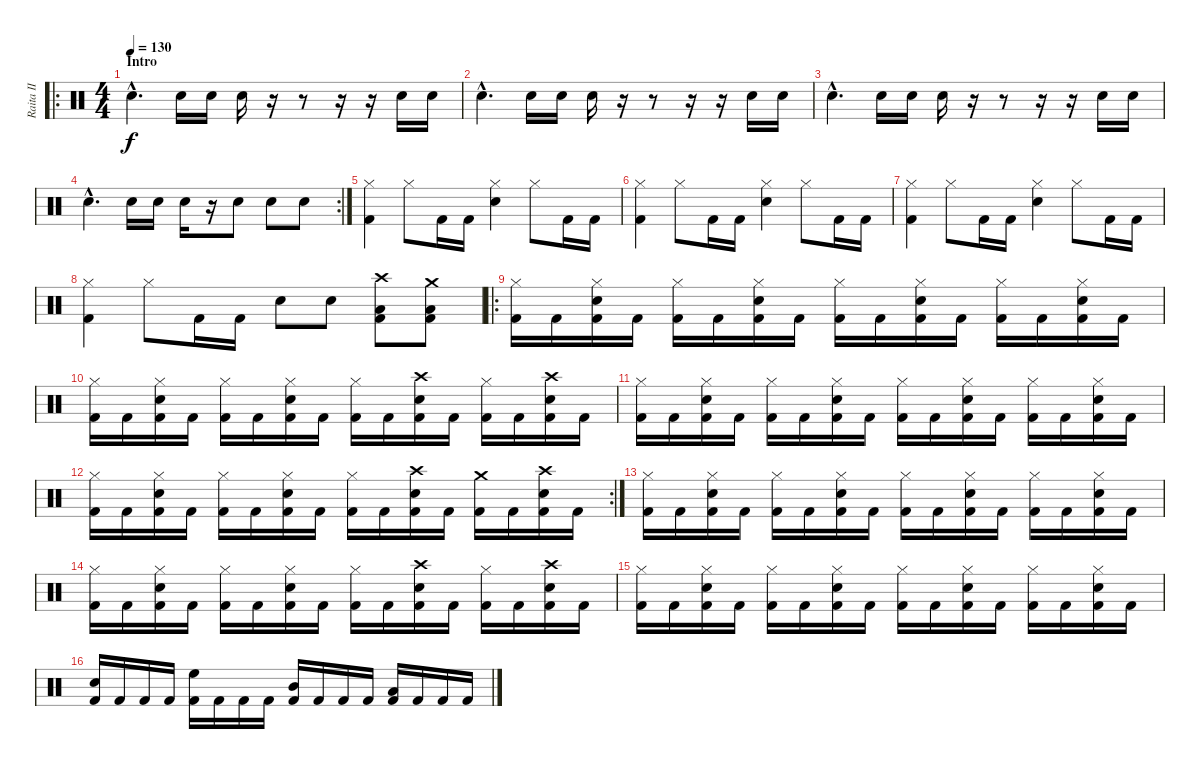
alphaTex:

\track ("Raita II" "Raita II") {instrument percussion}
\staff {score}
\articulation defaults
\ro
\ts (4 4)
\section ("" "Intro")
\tempo 130
\clef neutral
\ks c "Snare (hit) 2"{hac}.4{d dy f} "Snare (hit) 2".16 "Snare (hit) 2".16 "Snare (hit) 2".16
r.16 r.8 r.16 r.16 "Snare (hit) 2".16 "Snare (hit) 2".16 |
"Snare (hit) 2"{hac}.4{d} "Snare (hit) 2".16 "Snare (hit) 2".16 "Snare (hit) 2".16 r.16 r.8 r.16 r.16 "Snare (hit) 2".16 "Snare (hit) 2".16 |
"Snare (hit) 2"{hac}.4{d} "Snare (hit) 2".16 "Snare (hit) 2".16 "Snare (hit) 2".16 r.16 r.8 r.16 r.16 "Snare (hit) 2".16 "Snare (hit) 2".16 |
\rc 2 "Snare (hit) 2"{hac}.4{d} "Snare (hit) 2".16 "Snare (hit) 2".16 "Snare (hit) 2".16
r.16 "Snare (hit) 2".8 "Snare (hit) 2".8 "Snare (hit) 2".8 |
("Kick (hit) 2" "Hi-Hat (closed)").4 "Hi-Hat (closed)".8 "Kick (hit) 2".16 "Kick (hit) 2".16 ("Hi-Hat (closed)" "Snare (hit) 2").4 "Hi-Hat (closed)".8 "Kick (hit) 2".16 "Kick (hit) 2".16 |
("Kick (hit) 2" "Hi-Hat (closed)").4 "Hi-Hat (closed)".8 "Kick (hit) 2".16 "Kick (hit) 2".16 ("Hi-Hat (closed)" "Snare (hit) 2").4 "Hi-Hat (closed)".8 "Kick (hit) 2".16 "Kick (hit) 2".16 |
("Kick (hit) 2" "Hi-Hat (closed)").4 "Hi-Hat (closed)".8 "Kick (hit) 2".16 "Kick (hit) 2".16 ("Hi-Hat (closed)" "Snare (hit) 2").4 "Hi-Hat (closed)".8 "Kick (hit) 2".16 "Kick (hit) 2".16 |
("Kick (hit) 2" "Hi-Hat (closed)").4 "Hi-Hat (closed)".8 "Kick (hit) 2".16 "Kick (hit) 2".16 "Snare (hit) 2".8 "Snare (hit) 2".8 ("Kick (hit) 2" "Crash high (hit)" "Low Floor Tom (hit)").8 ("Kick (hit) 2" "Crash medium (hit)" "Low Floor Tom (hit)").8 |
\ro
("Kick (hit) 2" "Hi-Hat (closed)").16 "Kick (hit) 2".16 ("Kick (hit) 2" "Hi-Hat (closed)" "Snare (hit) 2").16 "Kick (hit) 2".16 ("Kick (hit) 2" "Hi-Hat (closed)").16 "Kick (hit) 2".16 ("Kick (hit) 2" "Hi-Hat (closed)" "Snare (hit) 2").16 "Kick (hit) 2".16 ("Kick (hit) 2" "Hi-Hat (closed)").16 "Kick (hit) 2".16 ("Kick (hit) 2" "Hi-Hat (closed)" "Snare (hit) 2").16 "Kick (hit) 2".16 ("Kick (hit) 2" "Hi-Hat (closed)").16 "Kick (hit) 2".16 ("Kick (hit) 2" "Hi-Hat (closed)" "Snare (hit) 2").16 "Kick (hit) 2".16 |
("Kick (hit) 2" "Hi-Hat (closed)").16 "Kick (hit) 2".16 ("Kick (hit) 2" "Hi-Hat (closed)" "Snare (hit) 2").16 "Kick (hit) 2".16 ("Kick (hit) 2" "Hi-Hat (closed)").16 "Kick (hit) 2".16 ("Kick (hit) 2" "Hi-Hat (closed)" "Snare (hit) 2").16 "Kick (hit) 2".16 ("Kick (hit) 2" "Hi-Hat (closed)").16 "Kick (hit) 2".16 ("Kick (hit) 2" "Crash high (hit)" "Snare (hit) 2").16 "Kick (hit) 2".16 ("Kick (hit) 2" "Hi-Hat (closed)").16 "Kick (hit) 2".16 ("Kick (hit) 2" "Crash high (hit)" "Snare (hit) 2").16 "Kick (hit) 2".16 |
("Kick (hit) 2" "Hi-Hat (closed)").16 "Kick (hit) 2".16 ("Kick (hit) 2" "Hi-Hat (closed)" "Snare (hit) 2").16 "Kick (hit) 2".16 ("Kick (hit) 2" "Hi-Hat (closed)").16 "Kick (hit) 2".16 ("Kick (hit) 2" "Hi-Hat (closed)" "Snare (hit) 2").16 "Kick (hit) 2".16 ("Kick (hit) 2" "Hi-Hat (closed)").16 "Kick (hit) 2".16 ("Kick (hit) 2" "Hi-Hat (closed)" "Snare (hit) 2").16 "Kick (hit) 2".16 ("Kick (hit) 2" "Hi-Hat (closed)").16 "Kick (hit) 2".16 ("Kick (hit) 2" "Hi-Hat (closed)" "Snare (hit) 2").16 "Kick (hit) 2".16 |
\rc 2
("Kick (hit) 2" "Hi-Hat (closed)").16 "Kick (hit) 2".16 ("Kick (hit) 2" "Hi-Hat (closed)" "Snare (hit) 2").16 "Kick (hit) 2".16 ("Kick (hit) 2" "Hi-Hat (closed)").16 "Kick (hit) 2".16 ("Kick (hit) 2" "Hi-Hat (closed)" "Snare (hit) 2").16 "Kick (hit) 2".16 ("Kick (hit) 2" "Hi-Hat (closed)").16 "Kick (hit) 2".16 ("Kick (hit) 2" "Crash high (hit)" "Snare (hit) 2").16 "Kick (hit) 2".16 ("Kick (hit) 2" "Crash medium (hit)").16 "Kick (hit) 2".16 ("Kick (hit) 2" "Crash high (hit)" "Snare (hit) 2").16 "Kick (hit) 2".16 |
("Kick (hit) 2" "Hi-Hat (closed)").16 "Kick (hit) 2".16 ("Kick (hit) 2" "Hi-Hat (closed)" "Snare (hit) 2").16 "Kick (hit) 2".16 ("Kick (hit) 2" "Hi-Hat (closed)").16 "Kick (hit) 2".16 ("Kick (hit) 2" "Hi-Hat (closed)" "Snare (hit) 2").16 "Kick (hit) 2".16 ("Kick (hit) 2" "Hi-Hat (closed)").16 "Kick (hit) 2".16 ("Kick (hit) 2" "Hi-Hat (closed)" "Snare (hit) 2").16 "Kick (hit) 2".16 ("Kick (hit) 2" "Hi-Hat (closed)").16 "Kick (hit) 2".16 ("Kick (hit) 2" "Hi-Hat (closed)" "Snare (hit) 2").16 "Kick (hit) 2".16 |
("Kick (hit) 2" "Hi-Hat (closed)").16 "Kick (hit) 2".16 ("Kick (hit) 2" "Hi-Hat (closed)" "Snare (hit) 2").16 "Kick (hit) 2".16 ("Kick (hit) 2" "Hi-Hat (closed)").16 "Kick (hit) 2".16 ("Kick (hit) 2" "Hi-Hat (closed)" "Snare (hit) 2").16 "Kick (hit) 2".16 ("Kick (hit) 2" "Hi-Hat (closed)").16 "Kick (hit) 2".16 ("Kick (hit) 2" "Crash high (hit)" "Snare (hit) 2").16 "Kick (hit) 2".16 ("Kick (hit) 2" "Hi-Hat (closed)").16 "Kick (hit) 2".16 ("Kick (hit) 2" "Crash high (hit)" "Snare (hit) 2").16 "Kick (hit) 2".16 |
("Kick (hit) 2" "Hi-Hat (closed)").16 "Kick (hit) 2".16 ("Kick (hit) 2" "Hi-Hat (closed)" "Snare (hit) 2").16 "Kick (hit) 2".16 ("Kick (hit) 2" "Hi-Hat (closed)").16 "Kick (hit) 2".16 ("Kick (hit) 2" "Hi-Hat (closed)" "Snare (hit) 2").16 "Kick (hit) 2".16 ("Kick (hit) 2" "Hi-Hat (closed)").16 "Kick (hit) 2".16 ("Kick (hit) 2" "Hi-Hat (closed)" "Snare (hit) 2").16 "Kick (hit) 2".16 ("Kick (hit) 2" "Hi-Hat (closed)").16 "Kick (hit) 2".16 ("Kick (hit) 2" "Hi-Hat (closed)" "Snare (hit) 2").16 "Kick (hit) 2".16 |
("Kick (hit) 2" "Snare (hit) 2").16 "Kick (hit) 2".16 "Kick (hit) 2".16 "Kick (hit) 2".16 ("Kick (hit) 2" "High Floor Tom (hit)").16 "Kick (hit) 2".16 "Kick (hit) 2".16 "Kick (hit) 2".16 ("Kick (hit) 2" "Mid Tom (hit)").16 "Kick (hit) 2".16 "Kick (hit) 2".16 "Kick (hit) 2".16 ("Kick (hit) 2" "Low Floor Tom (hit)").16 "Kick (hit) 2".16 "Kick (hit) 2".16 "Kick (hit) 2".16
